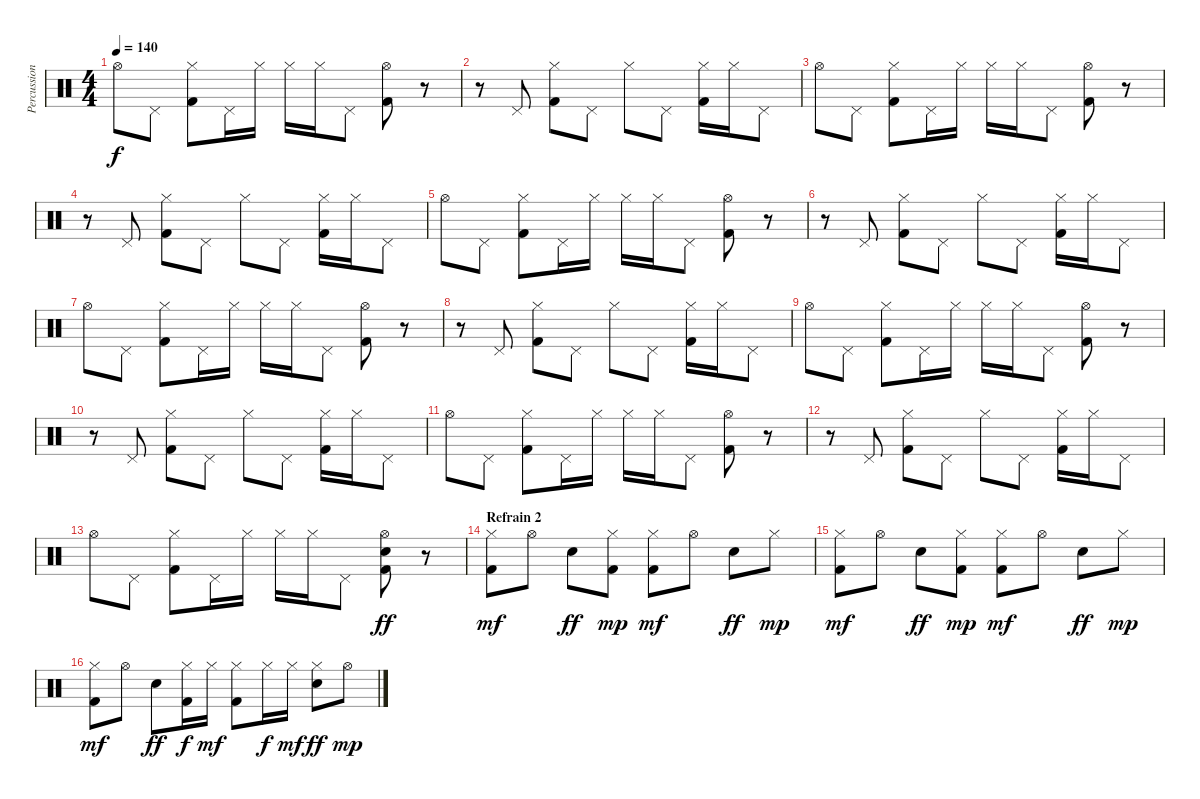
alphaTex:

\track ("Percussions" "Percussion") {instrument percussion}
\staff {score}
\articulation defaults
\ts (4 4)
\tempo 140
\clef neutral
\ks c "Hi-Hat (open)".8{dy f} "Pedal Hi-Hat (hit)".8
("Hi-Hat (closed)" "Kick (hit) 2").8 "Pedal Hi-Hat (hit)".16 "Hi-Hat (closed)".16 "Hi-Hat (closed)".16 "Hi-Hat (closed)".16 "Pedal Hi-Hat (hit)".8 ("Hi-Hat (open)" "Kick (hit) 2").8 r.8 |
r.8 "Pedal Hi-Hat (hit)".8 ("Hi-Hat (closed)" "Kick (hit) 2").8 "Pedal Hi-Hat (hit)".8 "Hi-Hat (closed)".8 "Pedal Hi-Hat (hit)".8 ("Hi-Hat (closed)" "Kick (hit) 2").16 "Hi-Hat (closed)".16 "Pedal Hi-Hat (hit)".8 |
"Hi-Hat (open)".8 "Pedal Hi-Hat (hit)".8 ("Hi-Hat (closed)" "Kick (hit) 2").8 "Pedal Hi-Hat (hit)".16 "Hi-Hat (closed)".16 "Hi-Hat (closed)".16 "Hi-Hat (closed)".16 "Pedal Hi-Hat (hit)".8 ("Hi-Hat (open)" "Kick (hit) 2").8 r.8 |
r.8 "Pedal Hi-Hat (hit)".8 ("Hi-Hat (closed)" "Kick (hit) 2").8 "Pedal Hi-Hat (hit)".8 "Hi-Hat (closed)".8 "Pedal Hi-Hat (hit)".8 ("Hi-Hat (closed)" "Kick (hit) 2").16 "Hi-Hat (closed)".16 "Pedal Hi-Hat (hit)".8 |
"Hi-Hat (open)".8 "Pedal Hi-Hat (hit)".8 ("Hi-Hat (closed)" "Kick (hit) 2").8 "Pedal Hi-Hat (hit)".16 "Hi-Hat (closed)".16 "Hi-Hat (closed)".16 "Hi-Hat (closed)".16 "Pedal Hi-Hat (hit)".8 ("Hi-Hat (open)" "Kick (hit) 2").8 r.8 |
r.8 "Pedal Hi-Hat (hit)".8 ("Hi-Hat (closed)" "Kick (hit) 2").8 "Pedal Hi-Hat (hit)".8 "Hi-Hat (closed)".8 "Pedal Hi-Hat (hit)".8 ("Hi-Hat (closed)" "Kick (hit) 2").16 "Hi-Hat (closed)".16 "Pedal Hi-Hat (hit)".8 |
"Hi-Hat (open)".8 "Pedal Hi-Hat (hit)".8 ("Hi-Hat (closed)" "Kick (hit) 2").8 "Pedal Hi-Hat (hit)".16 "Hi-Hat (closed)".16 "Hi-Hat (closed)".16 "Hi-Hat (closed)".16 "Pedal Hi-Hat (hit)".8 ("Hi-Hat (open)" "Kick (hit) 2").8 r.8 |
r.8 "Pedal Hi-Hat (hit)".8 ("Hi-Hat (closed)" "Kick (hit) 2").8 "Pedal Hi-Hat (hit)".8 "Hi-Hat (closed)".8 "Pedal Hi-Hat (hit)".8 ("Hi-Hat (closed)" "Kick (hit) 2").16 "Hi-Hat (closed)".16 "Pedal Hi-Hat (hit)".8 |
"Hi-Hat (open)".8 "Pedal Hi-Hat (hit)".8 ("Hi-Hat (closed)" "Kick (hit) 2").8 "Pedal Hi-Hat (hit)".16 "Hi-Hat (closed)".16 "Hi-Hat (closed)".16 "Hi-Hat (closed)".16 "Pedal Hi-Hat (hit)".8 ("Hi-Hat (open)" "Kick (hit) 2").8 r.8 |
r.8 "Pedal Hi-Hat (hit)".8 ("Hi-Hat (closed)" "Kick (hit) 2").8 "Pedal Hi-Hat (hit)".8 "Hi-Hat (closed)".8 "Pedal Hi-Hat (hit)".8 ("Hi-Hat (closed)" "Kick (hit) 2").16 "Hi-Hat (closed)".16 "Pedal Hi-Hat (hit)".8 |
"Hi-Hat (open)".8 "Pedal Hi-Hat (hit)".8 ("Hi-Hat (closed)" "Kick (hit) 2").8 "Pedal Hi-Hat (hit)".16 "Hi-Hat (closed)".16 "Hi-Hat (closed)".16 "Hi-Hat (closed)".16 "Pedal Hi-Hat (hit)".8 ("Hi-Hat (open)" "Kick (hit) 2").8 r.8 |
r.8 "Pedal Hi-Hat (hit)".8 ("Hi-Hat (closed)" "Kick (hit) 2").8 "Pedal Hi-Hat (hit)".8 "Hi-Hat (closed)".8 "Pedal Hi-Hat (hit)".8 ("Hi-Hat (closed)" "Kick (hit) 2").16 "Hi-Hat (closed)".16 "Pedal Hi-Hat (hit)".8 |
"Hi-Hat (open)".8 "Pedal Hi-Hat (hit)".8 ("Hi-Hat (closed)" "Kick (hit) 2").8 "Pedal Hi-Hat (hit)".16 "Hi-Hat (closed)".16 "Hi-Hat (closed)".16 "Hi-Hat (closed)".16 "Pedal Hi-Hat (hit)".8 ("Hi-Hat (open)" "Electric Snare (hit)" "Kick (hit) 2").8{dy ff} r.8 |
\section ("" "Refrain 2")
("Hi-Hat (closed)" "Kick (hit) 2").8{dy mf} "Hi-Hat (open)".8 "Electric Snare (hit)".8{dy ff} ("Hi-Hat (closed)" "Kick (hit) 2").8{dy mp} ("Hi-Hat (closed)" "Kick (hit) 2").8{dy mf} "Hi-Hat (open)".8 "Electric Snare (hit)".8{dy ff} "Hi-Hat (closed)".8{dy mp} |
("Hi-Hat (closed)" "Kick (hit) 2").8{dy mf} "Hi-Hat (open)".8 "Electric Snare (hit)".8{dy ff} ("Hi-Hat (closed)" "Kick (hit) 2").8{dy mp} ("Hi-Hat (closed)" "Kick (hit) 2").8{dy mf} "Hi-Hat (open)".8 "Electric Snare (hit)".8{dy ff} "Hi-Hat (closed)".8{dy mp} |
("Hi-Hat (closed)" "Kick (hit) 2").8{dy mf} "Hi-Hat (open)".8 "Electric Snare (hit)".8{dy ff} ("Hi-Hat (closed)" "Kick (hit) 2").16{dy f} "Hi-Hat (closed)".16{dy mf} ("Hi-Hat (closed)" "Kick (hit) 2").8 "Hi-Hat (closed)".16{dy f} "Hi-Hat (closed)".16{dy mf} ("Hi-Hat (closed)" "Electric Snare (hit)").8{dy ff} "Hi-Hat (open)".8{dy mp}
